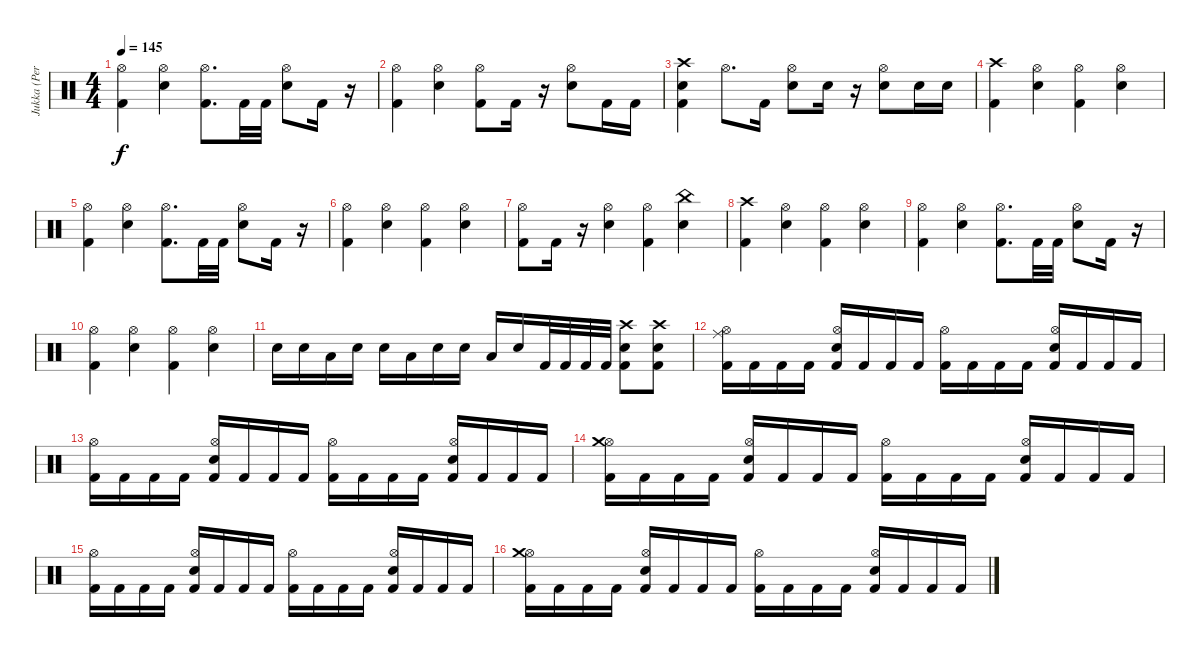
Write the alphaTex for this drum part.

\track ("Jukka (Percussion)" "Jukka (Per") {instrument percussion}
\staff {score}
\articulation defaults
\ts (4 4)
\tempo 145
\clef neutral
\ks c
("Kick (hit) 2" "Hi-Hat (open)").4{dy f} ("Electric Snare (hit)" "Hi-Hat (open)").4 ("Kick (hit) 2" "Hi-Hat (open)").8{d} "Kick (hit) 2".32 "Kick (hit) 2".32 ("Electric Snare (hit)" "Hi-Hat (open)").8 "Kick (hit) 2".16 r.16 |
("Kick (hit) 2" "Hi-Hat (open)").4 ("Electric Snare (hit)" "Hi-Hat (open)").4 ("Kick (hit) 2" "Hi-Hat (open)").8 "Kick (hit) 2".16 r.16 ("Electric Snare (hit)" "Hi-Hat (open)").8 "Kick (hit) 2".16 "Kick (hit) 2".16 |
("Kick (hit) 2" "Electric Snare (hit)" "Crash high (hit)").4 "Hi-Hat (open)".8{d} "Kick (hit) 2".16 ("Electric Snare (hit)" "Hi-Hat (open)").8 "Electric Snare (hit)".16 r.16 ("Electric Snare (hit)" "Hi-Hat (open)").8 "Electric Snare (hit)".16 "Electric Snare (hit)".16 |
("Kick (hit) 2" "Crash high (hit)").4 ("Electric Snare (hit)" "Hi-Hat (open)").4 ("Kick (hit) 2" "Hi-Hat (open)").4 ("Electric Snare (hit)" "Hi-Hat (open)").4 |
("Kick (hit) 2" "Hi-Hat (open)").4 ("Electric Snare (hit)" "Hi-Hat (open)").4 ("Kick (hit) 2" "Hi-Hat (open)").8{d} "Kick (hit) 2".32 "Kick (hit) 2".32 ("Electric Snare (hit)" "Hi-Hat (open)").8 "Kick (hit) 2".16 r.16 |
("Kick (hit) 2" "Hi-Hat (open)").4 ("Electric Snare (hit)" "Hi-Hat (open)").4 ("Kick (hit) 2" "Hi-Hat (open)").4 ("Electric Snare (hit)" "Hi-Hat (open)").4 |
("Kick (hit) 2" "Hi-Hat (open)").8 "Kick (hit) 2".16 r.16 ("Electric Snare (hit)" "Hi-Hat (open)").4 ("Kick (hit) 2" "Hi-Hat (open)").4 ("Electric Snare (hit)" "China (hit)").4 |
("Kick (hit) 2" "Crash high (hit)").4 ("Electric Snare (hit)" "Hi-Hat (open)").4 ("Kick (hit) 2" "Hi-Hat (open)").4 ("Electric Snare (hit)" "Hi-Hat (open)").4 |
("Kick (hit) 2" "Hi-Hat (open)").4 ("Electric Snare (hit)" "Hi-Hat (open)").4 ("Kick (hit) 2" "Hi-Hat (open)").8{d} "Kick (hit) 2".32 "Kick (hit) 2".32 ("Electric Snare (hit)" "Hi-Hat (open)").8 "Kick (hit) 2".16 r.16 |
("Kick (hit) 2" "Hi-Hat (open)").4 ("Electric Snare (hit)" "Hi-Hat (open)").4 ("Kick (hit) 2" "Hi-Hat (open)").4 ("Electric Snare (hit)" "Hi-Hat (open)").4 |
"Electric Snare (hit)".16 "Electric Snare (hit)".16 "Low Tom (hit)".16 "Electric Snare (hit)".16 "Electric Snare (hit)".16 "Low Tom (hit)".16 "Electric Snare (hit)".16 "Electric Snare (hit)".16 "Low Tom (hit)".16 "Electric Snare (hit)".16 "Kick (hit) 2".32 "Kick (hit) 2".32 "Kick (hit) 2".32 "Kick (hit) 2".32 ("Kick (hit) 2" "Electric Snare (hit)" "Crash high (hit)").8 ("Kick (hit) 2" "Electric Snare (hit)" "Crash high (hit)").8 |
("Kick (hit) 2" "Hi-Hat (open)" "Ride (middle)").16 "Kick (hit) 2".16 "Kick (hit) 2".16 "Kick (hit) 2".16 ("Kick (hit) 2" "Electric Snare (hit)" "Hi-Hat (open)").16 "Kick (hit) 2".16 "Kick (hit) 2".16 "Kick (hit) 2".16 ("Kick (hit) 2" "Hi-Hat (open)").16 "Kick (hit) 2".16 "Kick (hit) 2".16 "Kick (hit) 2".16 ("Kick (hit) 2" "Electric Snare (hit)" "Hi-Hat (open)").16 "Kick (hit) 2".16 "Kick (hit) 2".16 "Kick (hit) 2".16 |
("Kick (hit) 2" "Hi-Hat (open)").16 "Kick (hit) 2".16 "Kick (hit) 2".16 "Kick (hit) 2".16 ("Kick (hit) 2" "Electric Snare (hit)" "Hi-Hat (open)").16 "Kick (hit) 2".16 "Kick (hit) 2".16 "Kick (hit) 2".16 ("Kick (hit) 2" "Hi-Hat (open)").16 "Kick (hit) 2".16 "Kick (hit) 2".16 "Kick (hit) 2".16 ("Kick (hit) 2" "Electric Snare (hit)" "Hi-Hat (open)").16 "Kick (hit) 2".16 "Kick (hit) 2".16 "Kick (hit) 2".16 |
("Kick (hit) 2" "Hi-Hat (open)" "Crash medium (hit)").16 "Kick (hit) 2".16 "Kick (hit) 2".16 "Kick (hit) 2".16 ("Kick (hit) 2" "Electric Snare (hit)" "Hi-Hat (open)").16 "Kick (hit) 2".16 "Kick (hit) 2".16 "Kick (hit) 2".16 ("Kick (hit) 2" "Hi-Hat (open)").16 "Kick (hit) 2".16 "Kick (hit) 2".16 "Kick (hit) 2".16 ("Kick (hit) 2" "Electric Snare (hit)" "Hi-Hat (open)").16 "Kick (hit) 2".16 "Kick (hit) 2".16 "Kick (hit) 2".16 |
("Kick (hit) 2" "Hi-Hat (open)").16 "Kick (hit) 2".16 "Kick (hit) 2".16 "Kick (hit) 2".16 ("Kick (hit) 2" "Electric Snare (hit)" "Hi-Hat (open)").16 "Kick (hit) 2".16 "Kick (hit) 2".16 "Kick (hit) 2".16 ("Kick (hit) 2" "Hi-Hat (open)").16 "Kick (hit) 2".16 "Kick (hit) 2".16 "Kick (hit) 2".16 ("Kick (hit) 2" "Electric Snare (hit)" "Hi-Hat (open)").16 "Kick (hit) 2".16 "Kick (hit) 2".16 "Kick (hit) 2".16 |
("Kick (hit) 2" "Hi-Hat (open)" "Crash medium (hit)").16 "Kick (hit) 2".16 "Kick (hit) 2".16 "Kick (hit) 2".16 ("Kick (hit) 2" "Electric Snare (hit)" "Hi-Hat (open)").16 "Kick (hit) 2".16 "Kick (hit) 2".16 "Kick (hit) 2".16 ("Kick (hit) 2" "Hi-Hat (open)").16 "Kick (hit) 2".16 "Kick (hit) 2".16 "Kick (hit) 2".16 ("Kick (hit) 2" "Electric Snare (hit)" "Hi-Hat (open)").16 "Kick (hit) 2".16 "Kick (hit) 2".16 "Kick (hit) 2".16
